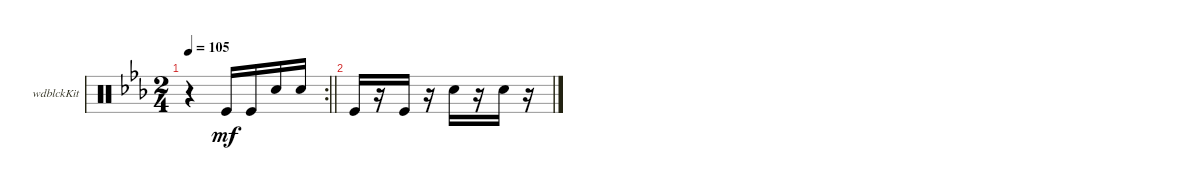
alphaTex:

\defaultSystemsLayout 4
\bracketExtendMode groupsimilarinstruments
\firstSystemTrackNameOrientation horizontal
\otherSystemsTrackNameOrientation horizontal
\track ("Woodblock" "wdblckKit") {instrument percussion}
\staff {score}
\articulation defaults
\rc 2
\ts (2 4)
\tempo 105
\clef neutral
\barLineRight lightlight
\ks cminor
r.4{dy mf} "Kick (hit)".16 "Kick (hit)".16 "Snare (hit) 2".16 "Snare (hit) 2".16 |
"Kick (hit)".16 r.16 "Kick (hit)".16 r.16 "Snare (hit) 2".16 r.16 "Snare (hit) 2".16 r.16
